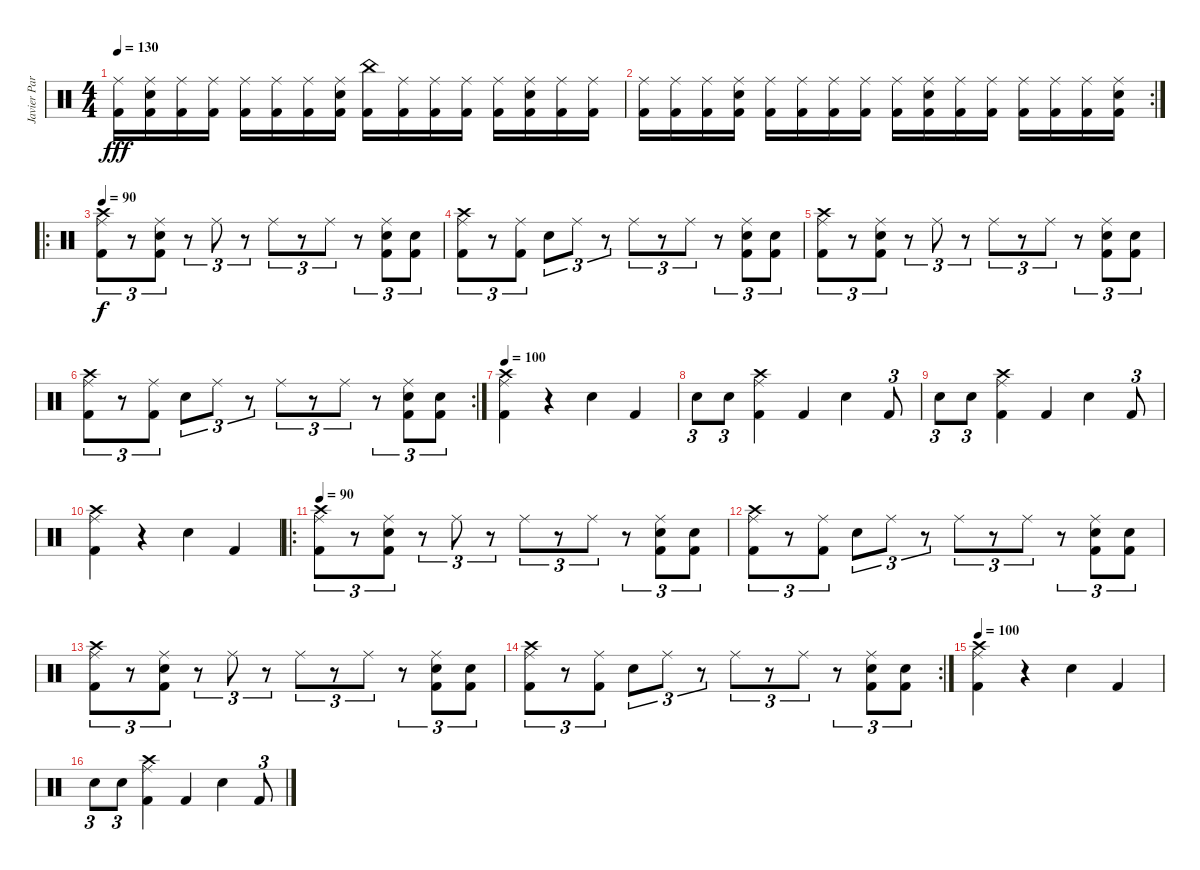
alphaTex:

\track ("Javier Partida" "Javier Par") {instrument percussion}
\staff {score}
\articulation defaults
\ts (4 4)
\tempo 130
\clef neutral
\ks c
("Ride (middle)" "Kick (hit) 2").16{dy fff} ("Ride (middle)" "Electric Snare (hit)" "Kick (hit) 2").16 ("Ride (middle)" "Kick (hit) 2").16 ("Ride (middle)" "Kick (hit) 2").16 ("Ride (middle)" "Kick (hit) 2").16 ("Ride (middle)" "Kick (hit) 2").16 ("Ride (middle)" "Kick (hit) 2").16 ("Ride (middle)" "Electric Snare (hit)" "Kick (hit) 2").16 ("China (hit)" "Kick (hit) 2").16 ("Ride (middle)" "Kick (hit) 2").16 ("Ride (middle)" "Kick (hit) 2").16 ("Ride (middle)" "Kick (hit) 2").16 ("Ride (middle)" "Kick (hit) 2").16 ("Ride (middle)" "Electric Snare (hit)" "Kick (hit) 2").16 ("Ride (middle)" "Kick (hit) 2").16 ("Ride (middle)" "Kick (hit) 2").16 |
\rc 2
("Ride (middle)" "Kick (hit) 2").16 ("Ride (middle)" "Kick (hit) 2").16 ("Ride (middle)" "Kick (hit) 2").16 ("Ride (middle)" "Electric Snare (hit)" "Kick (hit) 2").16 ("Ride (middle)" "Kick (hit) 2").16 ("Ride (middle)" "Kick (hit) 2").16 ("Ride (middle)" "Kick (hit) 2").16 ("Ride (middle)" "Kick (hit) 2").16 ("Ride (middle)" "Kick (hit) 2").16 ("Ride (middle)" "Electric Snare (hit)" "Kick (hit) 2").16 ("Ride (middle)" "Kick (hit) 2").16 ("Ride (middle)" "Kick (hit) 2").16 ("Ride (middle)" "Kick (hit) 2").16 ("Ride (middle)" "Kick (hit) 2").16 ("Ride (middle)" "Kick (hit) 2").16 ("Ride (middle)" "Electric Snare (hit)" "Kick (hit) 2").16 |
\ro
\tempo 90
("Crash high (hit)" "Ride (middle)" "Kick (hit) 2").8{tu (3 2) dy f} r.8{tu (3 2)} ("Ride (middle)" "Electric Snare (hit)" "Kick (hit) 2").8{tu (3 2)} r.8{tu (3 2)} "Ride (middle)".8{tu (3 2)} r.8{tu (3 2)} "Ride (middle)".8{tu (3 2)} r.8{tu (3 2)} "Ride (middle)".8{tu (3 2)} r.8{tu (3 2)} ("Ride (middle)" "Electric Snare (hit)" "Kick (hit) 2").8{tu (3 2)} ("Electric Snare (hit)" "Kick (hit) 2").8{tu (3 2)} |
("Crash high (hit)" "Ride (middle)" "Kick (hit) 2").8{tu (3 2)} r.8{tu (3 2)} ("Ride (middle)" "Kick (hit) 2").8{tu (3 2)} "Electric Snare (hit)".8{tu (3 2)} "Ride (middle)".8{tu (3 2)} r.8{tu (3 2)} "Ride (middle)".8{tu (3 2)} r.8{tu (3 2)} "Ride (middle)".8{tu (3 2)} r.8{tu (3 2)} ("Ride (middle)" "Electric Snare (hit)" "Kick (hit) 2").8{tu (3 2)} ("Electric Snare (hit)" "Kick (hit) 2").8{tu (3 2)} |
("Crash high (hit)" "Ride (middle)" "Kick (hit) 2").8{tu (3 2)} r.8{tu (3 2)} ("Ride (middle)" "Electric Snare (hit)" "Kick (hit) 2").8{tu (3 2)} r.8{tu (3 2)} "Ride (middle)".8{tu (3 2)} r.8{tu (3 2)} "Ride (middle)".8{tu (3 2)} r.8{tu (3 2)} "Ride (middle)".8{tu (3 2)} r.8{tu (3 2)} ("Ride (middle)" "Electric Snare (hit)" "Kick (hit) 2").8{tu (3 2)} ("Electric Snare (hit)" "Kick (hit) 2").8{tu (3 2)} |
\rc 2
("Crash high (hit)" "Ride (middle)" "Kick (hit) 2").8{tu (3 2)} r.8{tu (3 2)} ("Ride (middle)" "Kick (hit) 2").8{tu (3 2)} "Electric Snare (hit)".8{tu (3 2)} "Ride (middle)".8{tu (3 2)} r.8{tu (3 2)} "Ride (middle)".8{tu (3 2)} r.8{tu (3 2)} "Ride (middle)".8{tu (3 2)} r.8{tu (3 2)} ("Ride (middle)" "Electric Snare (hit)" "Kick (hit) 2").8{tu (3 2)} ("Electric Snare (hit)" "Kick (hit) 2").8{tu (3 2)} |
\tempo 100
("Crash high (hit)" "Ride (middle)" "Kick (hit) 2").4 r.4 "Electric Snare (hit)".4 "Kick (hit) 2".4 |
"Snare (hit) 2".8{tu (3 2)} "Electric Snare (hit)".8{tu (3 2)} ("Crash high (hit)" "Ride (middle)" "Kick (hit) 2").4 "Kick (hit) 2".4 "Electric Snare (hit)".4 "Kick (hit) 2".8{tu (3 2)} |
"Snare (hit) 2".8{tu (3 2)} "Electric Snare (hit)".8{tu (3 2)} ("Crash high (hit)" "Ride (middle)" "Kick (hit) 2").4 "Kick (hit) 2".4 "Electric Snare (hit)".4 "Kick (hit) 2".8{tu (3 2)} |
("Crash high (hit)" "Ride (middle)" "Kick (hit) 2").4 r.4 "Electric Snare (hit)".4 "Kick (hit) 2".4 |
\ro
\tempo 90
("Crash high (hit)" "Ride (middle)" "Kick (hit) 2").8{tu (3 2)} r.8{tu (3 2)} ("Ride (middle)" "Electric Snare (hit)" "Kick (hit) 2").8{tu (3 2)} r.8{tu (3 2)} "Ride (middle)".8{tu (3 2)} r.8{tu (3 2)} "Ride (middle)".8{tu (3 2)} r.8{tu (3 2)} "Ride (middle)".8{tu (3 2)} r.8{tu (3 2)} ("Ride (middle)" "Electric Snare (hit)" "Kick (hit) 2").8{tu (3 2)} ("Electric Snare (hit)" "Kick (hit) 2").8{tu (3 2)} |
("Crash high (hit)" "Ride (middle)" "Kick (hit) 2").8{tu (3 2)} r.8{tu (3 2)} ("Ride (middle)" "Kick (hit) 2").8{tu (3 2)} "Electric Snare (hit)".8{tu (3 2)} "Ride (middle)".8{tu (3 2)} r.8{tu (3 2)} "Ride (middle)".8{tu (3 2)} r.8{tu (3 2)} "Ride (middle)".8{tu (3 2)} r.8{tu (3 2)} ("Ride (middle)" "Electric Snare (hit)" "Kick (hit) 2").8{tu (3 2)} ("Electric Snare (hit)" "Kick (hit) 2").8{tu (3 2)} |
("Crash high (hit)" "Ride (middle)" "Kick (hit) 2").8{tu (3 2)} r.8{tu (3 2)} ("Ride (middle)" "Electric Snare (hit)" "Kick (hit) 2").8{tu (3 2)} r.8{tu (3 2)} "Ride (middle)".8{tu (3 2)} r.8{tu (3 2)} "Ride (middle)".8{tu (3 2)} r.8{tu (3 2)} "Ride (middle)".8{tu (3 2)} r.8{tu (3 2)} ("Ride (middle)" "Electric Snare (hit)" "Kick (hit) 2").8{tu (3 2)} ("Electric Snare (hit)" "Kick (hit) 2").8{tu (3 2)} |
\rc 2
("Crash high (hit)" "Ride (middle)" "Kick (hit) 2").8{tu (3 2)} r.8{tu (3 2)} ("Ride (middle)" "Kick (hit) 2").8{tu (3 2)} "Electric Snare (hit)".8{tu (3 2)} "Ride (middle)".8{tu (3 2)} r.8{tu (3 2)} "Ride (middle)".8{tu (3 2)} r.8{tu (3 2)} "Ride (middle)".8{tu (3 2)} r.8{tu (3 2)} ("Ride (middle)" "Electric Snare (hit)" "Kick (hit) 2").8{tu (3 2)} ("Electric Snare (hit)" "Kick (hit) 2").8{tu (3 2)} |
\tempo 100
("Crash high (hit)" "Ride (middle)" "Kick (hit) 2").4 r.4 "Electric Snare (hit)".4 "Kick (hit) 2".4 |
"Snare (hit) 2".8{tu (3 2)} "Electric Snare (hit)".8{tu (3 2)} ("Crash high (hit)" "Ride (middle)" "Kick (hit) 2").4 "Kick (hit) 2".4 "Electric Snare (hit)".4 "Kick (hit) 2".8{tu (3 2)}
